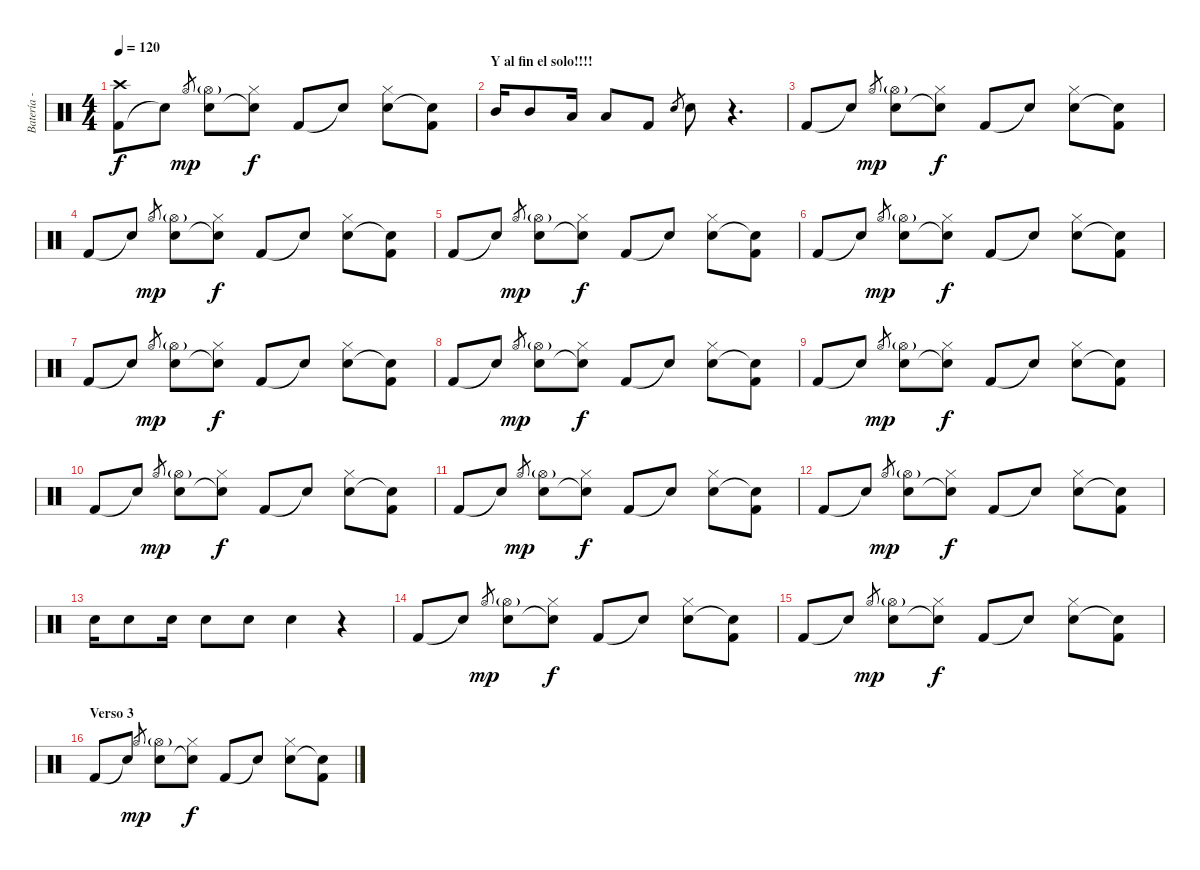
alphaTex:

\track ("Batería - Txus" "Batería - ") {instrument percussion}
\staff {score}
\articulation defaults
\ts (4 4)
\tempo 120
\clef neutral
\ks c
("Kick (hit) 2" "Crash high (hit)").8{dy f} "Snare (hit)"{t}.8 "Hi-Hat (open)".8{gr dy mp} ("Snare (hit) 2" "Hi-Hat (open)"{g}).8 ("Snare (hit)"{t} "Hi-Hat (closed)").8{dy f} "Kick (hit) 2".8 "Snare (hit)"{t}.8 ("Snare (hit) 2" "Hi-Hat (closed)").8 ("Snare (hit)"{t} "Kick (hit) 2").8 |
\section ("" "Y al fin el solo!!!!")
"Mid Tom (hit)".16 "Mid Tom (hit)".8 "Low Tom (hit)".16 "Low Tom (hit)".8 "Kick (hit) 2".8 "Snare (hit) 2".8{gr} "Snare (hit) 2".8 r.4{d} |
"Kick (hit) 2".8 "Snare (hit)"{t}.8 "Hi-Hat (open)".8{gr dy mp} ("Snare (hit) 2" "Hi-Hat (open)"{g}).8 ("Snare (hit)"{t} "Hi-Hat (closed)").8{dy f} "Kick (hit) 2".8 "Snare (hit)"{t}.8 ("Snare (hit) 2" "Hi-Hat (closed)").8 ("Snare (hit)"{t} "Kick (hit) 2").8 |
"Kick (hit) 2".8 "Snare (hit)"{t}.8 "Hi-Hat (open)".8{gr dy mp} ("Snare (hit) 2" "Hi-Hat (open)"{g}).8 ("Snare (hit)"{t} "Hi-Hat (closed)").8{dy f} "Kick (hit) 2".8 "Snare (hit)"{t}.8 ("Snare (hit) 2" "Hi-Hat (closed)").8 ("Snare (hit)"{t} "Kick (hit) 2").8 |
"Kick (hit) 2".8 "Snare (hit)"{t}.8 "Hi-Hat (open)".8{gr dy mp} ("Snare (hit) 2" "Hi-Hat (open)"{g}).8 ("Snare (hit)"{t} "Hi-Hat (closed)").8{dy f} "Kick (hit) 2".8 "Snare (hit)"{t}.8 ("Snare (hit) 2" "Hi-Hat (closed)").8 ("Snare (hit)"{t} "Kick (hit) 2").8 |
"Kick (hit) 2".8 "Snare (hit)"{t}.8 "Hi-Hat (open)".8{gr dy mp} ("Snare (hit) 2" "Hi-Hat (open)"{g}).8 ("Snare (hit)"{t} "Hi-Hat (closed)").8{dy f} "Kick (hit) 2".8 "Snare (hit)"{t}.8 ("Snare (hit) 2" "Hi-Hat (closed)").8 ("Snare (hit)"{t} "Kick (hit) 2").8 |
"Kick (hit) 2".8 "Snare (hit)"{t}.8 "Hi-Hat (open)".8{gr dy mp} ("Snare (hit) 2" "Hi-Hat (open)"{g}).8 ("Snare (hit)"{t} "Hi-Hat (closed)").8{dy f} "Kick (hit) 2".8 "Snare (hit)"{t}.8 ("Snare (hit) 2" "Hi-Hat (closed)").8 ("Snare (hit)"{t} "Kick (hit) 2").8 |
"Kick (hit) 2".8 "Snare (hit)"{t}.8 "Hi-Hat (open)".8{gr dy mp} ("Snare (hit) 2" "Hi-Hat (open)"{g}).8 ("Snare (hit)"{t} "Hi-Hat (closed)").8{dy f} "Kick (hit) 2".8 "Snare (hit)"{t}.8 ("Snare (hit) 2" "Hi-Hat (closed)").8 ("Snare (hit)"{t} "Kick (hit) 2").8 |
"Kick (hit) 2".8 "Snare (hit)"{t}.8 "Hi-Hat (open)".8{gr dy mp} ("Snare (hit) 2" "Hi-Hat (open)"{g}).8 ("Snare (hit)"{t} "Hi-Hat (closed)").8{dy f} "Kick (hit) 2".8 "Snare (hit)"{t}.8 ("Snare (hit) 2" "Hi-Hat (closed)").8 ("Snare (hit)"{t} "Kick (hit) 2").8 |
"Kick (hit) 2".8 "Snare (hit)"{t}.8 "Hi-Hat (open)".8{gr dy mp} ("Snare (hit) 2" "Hi-Hat (open)"{g}).8 ("Snare (hit)"{t} "Hi-Hat (closed)").8{dy f} "Kick (hit) 2".8 "Snare (hit)"{t}.8 ("Snare (hit) 2" "Hi-Hat (closed)").8 ("Snare (hit)"{t} "Kick (hit) 2").8 |
"Kick (hit) 2".8 "Snare (hit)"{t}.8 "Hi-Hat (open)".8{gr dy mp} ("Snare (hit) 2" "Hi-Hat (open)"{g}).8 ("Snare (hit)"{t} "Hi-Hat (closed)").8{dy f} "Kick (hit) 2".8 "Snare (hit)"{t}.8 ("Snare (hit) 2" "Hi-Hat (closed)").8 ("Snare (hit)"{t} "Kick (hit) 2").8 |
"Kick (hit) 2".8 "Snare (hit)"{t}.8 "Hi-Hat (open)".8{gr dy mp} ("Snare (hit) 2" "Hi-Hat (open)"{g}).8 ("Snare (hit)"{t} "Hi-Hat (closed)").8{dy f} "Kick (hit) 2".8 "Snare (hit)"{t}.8 ("Snare (hit) 2" "Hi-Hat (closed)").8 ("Snare (hit)"{t} "Kick (hit) 2").8 |
"Snare (hit) 2".16 "Snare (hit) 2".8 "Snare (hit) 2".16 "Snare (hit) 2".8 "Snare (hit) 2".8 "Snare (hit) 2".4 r.4 |
"Kick (hit) 2".8 "Snare (hit)"{t}.8 "Hi-Hat (open)".8{gr dy mp} ("Snare (hit) 2" "Hi-Hat (open)"{g}).8 ("Snare (hit)"{t} "Hi-Hat (closed)").8{dy f} "Kick (hit) 2".8 "Snare (hit)"{t}.8 ("Snare (hit) 2" "Hi-Hat (closed)").8 ("Snare (hit)"{t} "Kick (hit) 2").8 |
"Kick (hit) 2".8 "Snare (hit)"{t}.8 "Hi-Hat (open)".8{gr dy mp} ("Snare (hit) 2" "Hi-Hat (open)"{g}).8 ("Snare (hit)"{t} "Hi-Hat (closed)").8{dy f} "Kick (hit) 2".8 "Snare (hit)"{t}.8 ("Snare (hit) 2" "Hi-Hat (closed)").8 ("Snare (hit)"{t} "Kick (hit) 2").8 |
\section ("" "Verso 3")
"Kick (hit) 2".8 "Snare (hit)"{t}.8 "Hi-Hat (open)".8{gr dy mp} ("Snare (hit) 2" "Hi-Hat (open)"{g}).8 ("Snare (hit)"{t} "Hi-Hat (closed)").8{dy f} "Kick (hit) 2".8 "Snare (hit)"{t}.8 ("Snare (hit) 2" "Hi-Hat (closed)").8 ("Snare (hit)"{t} "Kick (hit) 2").8
